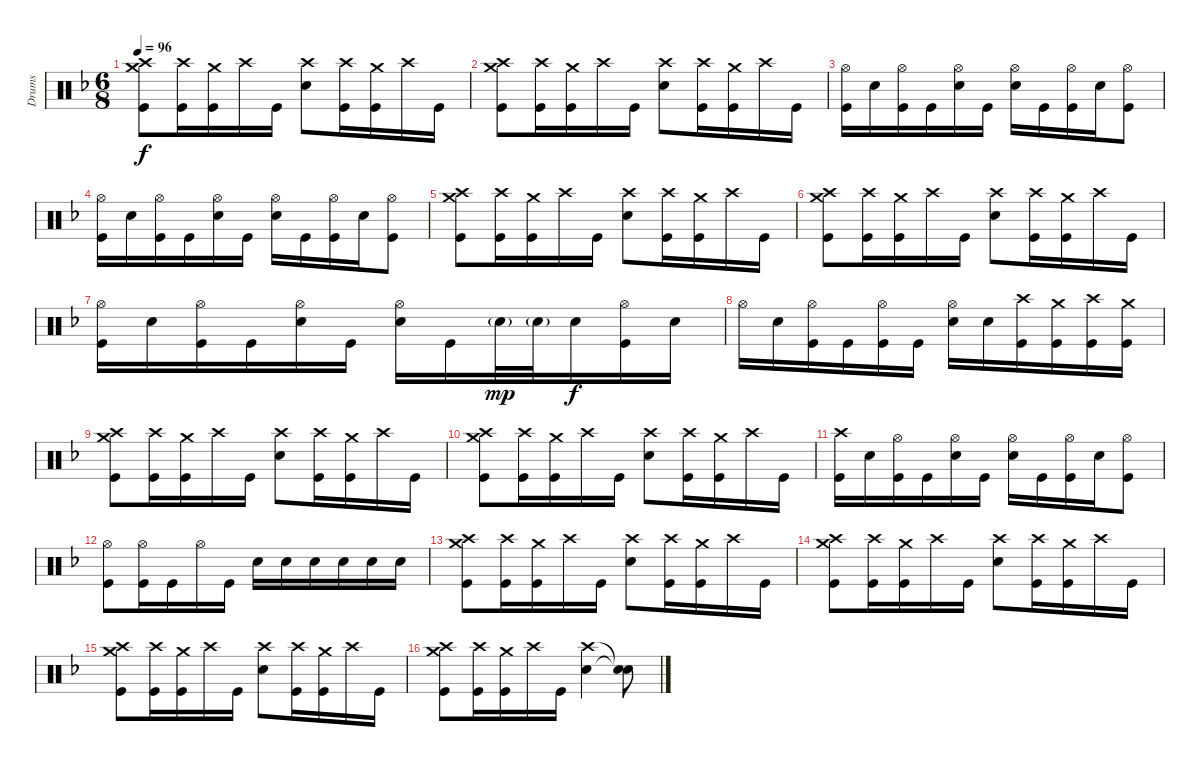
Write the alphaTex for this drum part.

\track ("Drums" "Drums") {instrument percussion}
\staff {score}
\articulation defaults
\ts (6 8)
\tempo 96
\clef neutral
\ks f
("Crash medium (hit)" "Crash high (hit)" "Kick (hit)").8{dy f} ("Crash high (hit)" "Kick (hit)").16 ("Crash medium (hit)" "Kick (hit)").16 "Crash high (hit)".16 "Kick (hit)".16 ("Crash high (hit)" "Snare (hit) 2").8 ("Crash high (hit)" "Kick (hit)").16 ("Crash medium (hit)" "Kick (hit)").16 "Crash high (hit)".16 "Kick (hit)".16 |
("Crash medium (hit)" "Crash high (hit)" "Kick (hit)").8 ("Crash high (hit)" "Kick (hit)").16 ("Crash medium (hit)" "Kick (hit)").16 "Crash high (hit)".16 "Kick (hit)".16 ("Crash high (hit)" "Snare (hit) 2").8 ("Crash high (hit)" "Kick (hit)").16 ("Crash medium (hit)" "Kick (hit)").16 "Crash high (hit)".16 "Kick (hit)".16 |
("Hi-Hat (open)" "Kick (hit)").16 "Snare (hit) 2".16 ("Hi-Hat (open)" "Kick (hit)").16 "Kick (hit)".16 ("Hi-Hat (open)" "Snare (hit) 2").16 "Kick (hit)".16 ("Hi-Hat (open)" "Snare (hit) 2").16 "Kick (hit)".16 ("Hi-Hat (open)" "Kick (hit)").16 "Snare (hit) 2".16 ("Hi-Hat (open)" "Kick (hit)").8 |
("Hi-Hat (open)" "Kick (hit)").16 "Snare (hit) 2".16 ("Hi-Hat (open)" "Kick (hit)").16 "Kick (hit)".16 ("Hi-Hat (open)" "Snare (hit) 2").16 "Kick (hit)".16 ("Hi-Hat (open)" "Snare (hit) 2").16 "Kick (hit)".16 ("Hi-Hat (open)" "Kick (hit)").16 "Snare (hit) 2".16 ("Hi-Hat (open)" "Kick (hit)").8 |
("Crash medium (hit)" "Crash high (hit)" "Kick (hit)").8 ("Crash high (hit)" "Kick (hit)").16 ("Crash medium (hit)" "Kick (hit)").16 "Crash high (hit)".16 "Kick (hit)".16 ("Crash high (hit)" "Snare (hit) 2").8 ("Crash high (hit)" "Kick (hit)").16 ("Crash medium (hit)" "Kick (hit)").16 "Crash high (hit)".16 "Kick (hit)".16 |
("Crash medium (hit)" "Crash high (hit)" "Kick (hit)").8 ("Crash high (hit)" "Kick (hit)").16 ("Crash medium (hit)" "Kick (hit)").16 "Crash high (hit)".16 "Kick (hit)".16 ("Crash high (hit)" "Snare (hit) 2").8 ("Crash high (hit)" "Kick (hit)").16 ("Crash medium (hit)" "Kick (hit)").16 "Crash high (hit)".16 "Kick (hit)".16 |
("Hi-Hat (open)" "Kick (hit)").16 "Snare (hit) 2".16 ("Hi-Hat (open)" "Kick (hit)").16 "Kick (hit)".16 ("Hi-Hat (open)" "Snare (hit) 2").16 "Kick (hit)".16 ("Hi-Hat (open)" "Snare (hit) 2").16 "Kick (hit)".16 "Snare (hit) 2"{g}.32{dy mp} "Snare (hit) 2"{g}.32 "Snare (hit) 2".16{dy f} ("Hi-Hat (open)" "Kick (hit)").16 "Snare (hit) 2".16 |
"Hi-Hat (open)".16 "Snare (hit) 2".16 ("Hi-Hat (open)" "Kick (hit)").16 "Kick (hit)".16 ("Hi-Hat (open)" "Kick (hit)").16 "Kick (hit)".16 ("Hi-Hat (open)" "Snare (hit) 2").16 "Snare (hit) 2".16 ("Crash high (hit)" "Kick (hit)").16 ("Crash medium (hit)" "Kick (hit)").16 ("Crash high (hit)" "Kick (hit)").16 ("Crash medium (hit)" "Kick (hit)").16 |
("Crash medium (hit)" "Crash high (hit)" "Kick (hit)").8 ("Crash high (hit)" "Kick (hit)").16 ("Crash medium (hit)" "Kick (hit)").16 "Crash high (hit)".16 "Kick (hit)".16 ("Crash high (hit)" "Snare (hit) 2").8 ("Crash high (hit)" "Kick (hit)").16 ("Crash medium (hit)" "Kick (hit)").16 "Crash high (hit)".16 "Kick (hit)".16 |
("Crash medium (hit)" "Crash high (hit)" "Kick (hit)").8 ("Crash high (hit)" "Kick (hit)").16 ("Crash medium (hit)" "Kick (hit)").16 "Crash high (hit)".16 "Kick (hit)".16 ("Crash high (hit)" "Snare (hit) 2").8 ("Crash high (hit)" "Kick (hit)").16 ("Crash medium (hit)" "Kick (hit)").16 "Crash high (hit)".16 "Kick (hit)".16 |
("Crash high (hit)" "Kick (hit)").16 "Snare (hit) 2".16 ("Hi-Hat (open)" "Kick (hit)").16 "Kick (hit)".16 ("Hi-Hat (open)" "Snare (hit) 2").16 "Kick (hit)".16 ("Hi-Hat (open)" "Snare (hit) 2").16 "Kick (hit)".16 ("Hi-Hat (open)" "Kick (hit)").16 "Snare (hit) 2".16 ("Hi-Hat (open)" "Kick (hit)").8 |
("Hi-Hat (open)" "Kick (hit)").8 ("Hi-Hat (open)" "Kick (hit)").16 "Kick (hit)".16 "Hi-Hat (open)".16 "Kick (hit)".16 "Snare (hit) 2".16 "Snare (hit) 2".16 "Snare (hit) 2".16 "Snare (hit) 2".16 "Snare (hit) 2".16 "Snare (hit) 2".16 |
("Crash medium (hit)" "Crash high (hit)" "Kick (hit)").8 ("Crash high (hit)" "Kick (hit)").16 ("Crash medium (hit)" "Kick (hit)").16 "Crash high (hit)".16 "Kick (hit)".16 ("Crash high (hit)" "Snare (hit) 2").8 ("Crash high (hit)" "Kick (hit)").16 ("Crash medium (hit)" "Kick (hit)").16 "Crash high (hit)".16 "Kick (hit)".16 |
("Crash medium (hit)" "Crash high (hit)" "Kick (hit)").8 ("Crash high (hit)" "Kick (hit)").16 ("Crash medium (hit)" "Kick (hit)").16 "Crash high (hit)".16 "Kick (hit)".16 ("Crash high (hit)" "Snare (hit) 2").8 ("Crash high (hit)" "Kick (hit)").16 ("Crash medium (hit)" "Kick (hit)").16 "Crash high (hit)".16 "Kick (hit)".16 |
("Crash medium (hit)" "Crash high (hit)" "Kick (hit)").8 ("Crash high (hit)" "Kick (hit)").16 ("Crash medium (hit)" "Kick (hit)").16 "Crash high (hit)".16 "Kick (hit)".16 ("Crash high (hit)" "Snare (hit) 2").8 ("Crash high (hit)" "Kick (hit)").16 ("Crash medium (hit)" "Kick (hit)").16 "Crash high (hit)".16 "Kick (hit)".16 |
("Crash medium (hit)" "Crash high (hit)" "Kick (hit)").8 ("Crash high (hit)" "Kick (hit)").16 ("Crash medium (hit)" "Kick (hit)").16 "Crash high (hit)".16 "Kick (hit)".16 ("Crash high (hit)" "Snare (hit) 2").4 ("Snare (hit)"{t} "Snare (hit)"{t}).8
